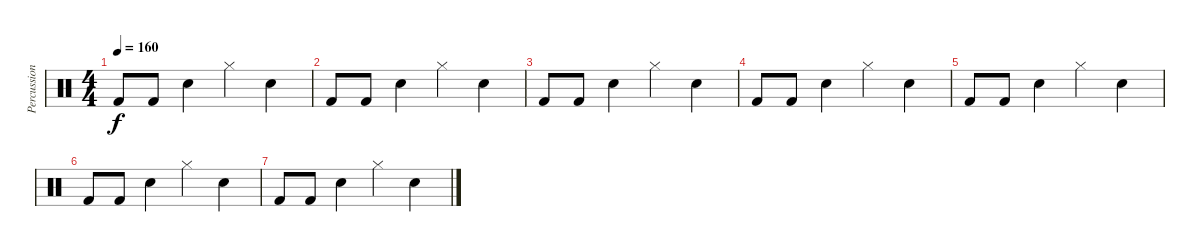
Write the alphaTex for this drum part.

\track ("Percussion" "Percussion") {instrument percussion}
\staff {score}
\articulation defaults
\ts (4 4)
\tempo 160
\clef neutral
\ks c "Kick (hit) 2".8{dy f} "Kick (hit) 2".8 "Snare (hit) 2".4 "Hi-Hat (closed)".4 "Snare (hit) 2".4
|
"Kick (hit) 2".8 "Kick (hit) 2".8 "Snare (hit) 2".4 "Hi-Hat (closed)".4 "Snare (hit) 2".4 |
"Kick (hit) 2".8 "Kick (hit) 2".8 "Snare (hit) 2".4 "Hi-Hat (closed)".4 "Snare (hit) 2".4 |
"Kick (hit) 2".8 "Kick (hit) 2".8 "Snare (hit) 2".4 "Hi-Hat (closed)".4 "Snare (hit) 2".4 |
"Kick (hit) 2".8 "Kick (hit) 2".8 "Snare (hit) 2".4 "Hi-Hat (closed)".4 "Snare (hit) 2".4 |
"Kick (hit) 2".8 "Kick (hit) 2".8 "Snare (hit) 2".4 "Hi-Hat (closed)".4 "Snare (hit) 2".4 |
"Kick (hit) 2".8 "Kick (hit) 2".8 "Snare (hit) 2".4 "Hi-Hat (closed)".4 "Snare (hit) 2".4
